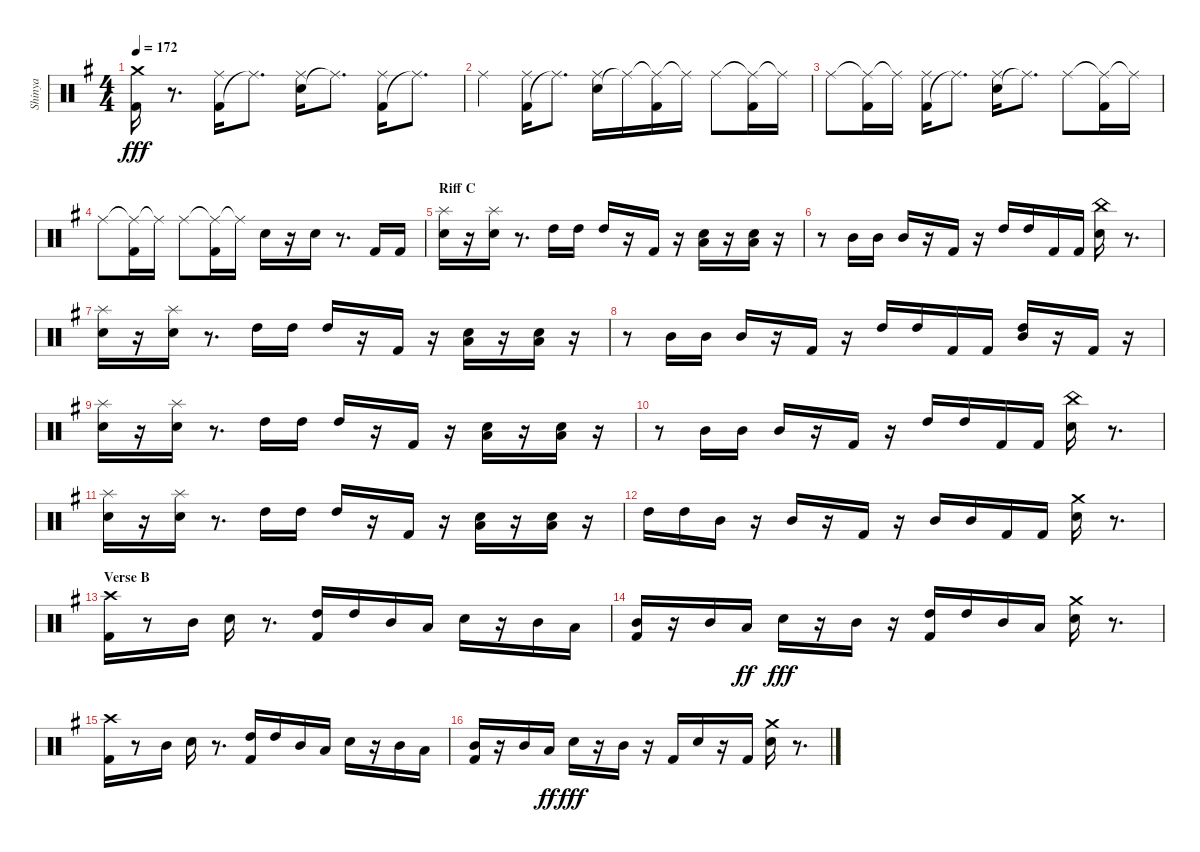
\track ("Shinya" "Shinya") {instrument percussion}
\staff {score}
\articulation defaults
\ts (4 4)
\tempo 172
\clef neutral
\ks eminor
("Kick (hit) 2" "Crash medium (hit)").16{dy fff} r.8{d} ("Kick (hit) 2" "Ride (middle)").16 "Ride (middle)"{t}.8{d} ("Snare (hit) 2" "Ride (middle)").16 "Ride (middle)"{t}.8{d} ("Kick (hit) 2" "Ride (middle)").16 "Ride (middle)"{t}.8{d} |
"Ride (middle)".4 ("Kick (hit) 2" "Ride (middle)").16 "Ride (middle)"{t}.8{d} ("Snare (hit) 2" "Ride (middle)").16 "Ride (middle)"{t}.16 ("Ride (middle)"{t} "Kick (hit) 2").16 "Ride (middle)"{t}.16 "Ride (middle)".8 ("Ride (middle)"{t} "Kick (hit) 2").16 "Ride (middle)"{t}.16 |
"Ride (middle)".8 ("Ride (middle)"{t} "Kick (hit) 2").16 "Ride (middle)"{t}.16 ("Kick (hit) 2" "Ride (middle)").16 "Ride (middle)"{t}.8{d} ("Snare (hit) 2" "Ride (middle)").16 "Ride (middle)"{t}.8{d} "Ride (middle)".8 ("Ride (middle)"{t} "Kick (hit) 2").16 "Ride (middle)"{t}.16 |
"Ride (middle)".8 ("Ride (middle)"{t} "Kick (hit) 2").16 "Ride (middle)"{t}.16 "Ride (middle)".8 ("Ride (middle)"{t} "Kick (hit) 2").16 "Ride (middle)"{t}.16 "Snare (hit) 2".16 r.16 "Snare (hit) 2".16 r.8{d} "Kick (hit) 2".16 "Kick (hit) 2".16 |
\section ("" "Riff C")
("Snare (hit) 2" "Splash (hit)").16 r.16 ("Snare (hit) 2" "Splash (hit)").16 r.8{d} "High Tom (hit)".16 "High Tom (hit)".16 "High Tom (hit)".16 r.16 "Kick (hit) 2".16 r.16 ("Snare (hit) 2" "Low Tom (hit)").16 r.16 ("Snare (hit) 2" "Low Tom (hit)").16 r.16 |
r.8 "Mid Tom (hit)".16 "Mid Tom (hit)".16 "Mid Tom (hit)".16 r.16 "Kick (hit) 2".16 r.16 "High Tom (hit)".16 "High Tom (hit)".16 "Kick (hit) 2".16 "Kick (hit) 2".16 ("Snare (hit) 2" "China (hit)").16 r.8{d} |
("Snare (hit) 2" "Splash (hit)").16 r.16 ("Snare (hit) 2" "Splash (hit)").16 r.8{d} "High Tom (hit)".16 "High Tom (hit)".16 "High Tom (hit)".16 r.16 "Kick (hit) 2".16 r.16 ("Snare (hit) 2" "Low Tom (hit)").16 r.16 ("Snare (hit) 2" "Low Tom (hit)").16 r.16 |
r.8 "Mid Tom (hit)".16 "Mid Tom (hit)".16 "Mid Tom (hit)".16 r.16 "Kick (hit) 2".16 r.16 "High Tom (hit)".16 "High Tom (hit)".16 "Kick (hit) 2".16 "Kick (hit) 2".16 ("Mid Tom (hit)" "High Tom (hit)").16 r.16 "Kick (hit) 2".16 r.16 |
("Snare (hit) 2" "Splash (hit)").16 r.16 ("Snare (hit) 2" "Splash (hit)").16 r.8{d} "High Tom (hit)".16 "High Tom (hit)".16 "High Tom (hit)".16 r.16 "Kick (hit) 2".16 r.16 ("Snare (hit) 2" "Low Tom (hit)").16 r.16 ("Snare (hit) 2" "Low Tom (hit)").16 r.16 |
r.8 "Mid Tom (hit)".16 "Mid Tom (hit)".16 "Mid Tom (hit)".16 r.16 "Kick (hit) 2".16 r.16 "High Tom (hit)".16 "High Tom (hit)".16 "Kick (hit) 2".16 "Kick (hit) 2".16 ("Snare (hit) 2" "China (hit)").16 r.8{d} |
("Snare (hit) 2" "Splash (hit)").16 r.16 ("Snare (hit) 2" "Splash (hit)").16 r.8{d} "High Tom (hit)".16 "High Tom (hit)".16 "High Tom (hit)".16 r.16 "Kick (hit) 2".16 r.16 ("Snare (hit) 2" "Low Tom (hit)").16 r.16 ("Snare (hit) 2" "Low Tom (hit)").16 r.16 |
"High Tom (hit)".16 "High Tom (hit)".16 "Mid Tom (hit)".16 r.16 "Mid Tom (hit)".16 r.16 "Kick (hit) 2".16 r.16 "Mid Tom (hit)".16 "Mid Tom (hit)".16 "Kick (hit) 2".16 "Kick (hit) 2".16 ("Snare (hit) 2" "Crash medium (hit)").16 r.8{d} |
\section ("" "Verse B")
("Kick (hit) 2" "Crash high (hit)").16 r.8 "Mid Tom (hit)".16 "Snare (hit) 2".16 r.8{d} ("Kick (hit) 2" "High Tom (hit)").16 "High Tom (hit)".16 "Mid Tom (hit)".16 "Low Tom (hit)".16 "Snare (hit) 2".16 r.16 "Mid Tom (hit)".16 "Low Tom (hit)".16 |
("Kick (hit) 2" "Mid Tom (hit)").16 r.16 "Mid Tom (hit)".16 "Low Tom (hit)".16{dy ff} "Snare (hit) 2".16{dy fff} r.16 "Mid Tom (hit)".16 r.16 ("Kick (hit) 2" "High Tom (hit)").16 "High Tom (hit)".16 "Mid Tom (hit)".16 "Low Tom (hit)".16 ("Snare (hit) 2" "Crash medium (hit)").16 r.8{d} |
("Kick (hit) 2" "Crash high (hit)").16 r.8 "Mid Tom (hit)".16 "Snare (hit) 2".16 r.8{d} ("Kick (hit) 2" "High Tom (hit)").16 "High Tom (hit)".16 "Mid Tom (hit)".16 "Low Tom (hit)".16 "Snare (hit) 2".16 r.16 "Mid Tom (hit)".16 "Low Tom (hit)".16 |
("Kick (hit) 2" "Mid Tom (hit)").16 r.16 "Mid Tom (hit)".16 "Low Tom (hit)".16{dy ff} "Snare (hit) 2".16{dy fff} r.16 "Mid Tom (hit)".16 r.16 "Kick (hit) 2".16 "Snare (hit) 2".16 r.16 "Kick (hit) 2".16 ("Snare (hit) 2" "Crash medium (hit)").16 r.8{d}
